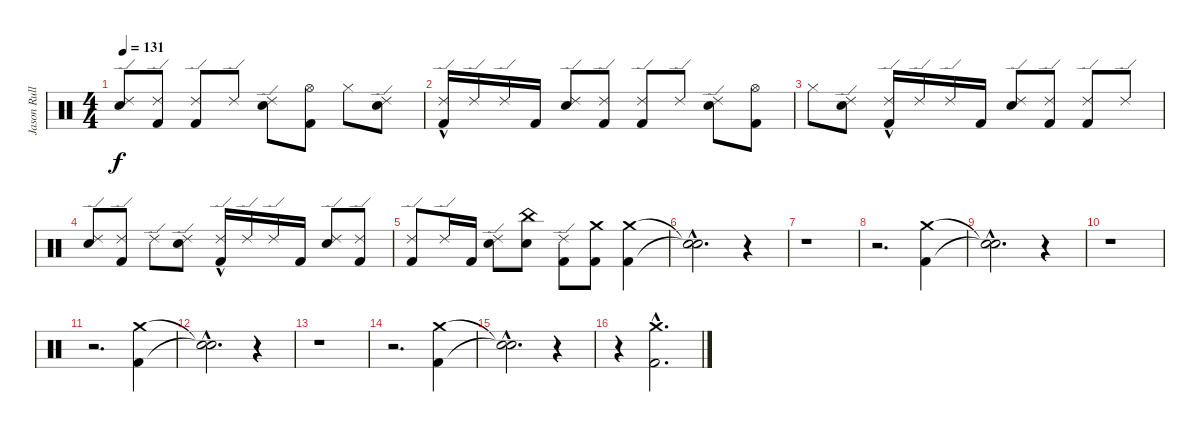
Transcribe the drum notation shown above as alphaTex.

\track ("Jason Rullo (Drums)" "Jason Rull") {instrument percussion}
\staff {score}
\articulation defaults
\ts (4 4)
\tempo 131
\clef neutral
\ks c
("Electric Snare (hit)" "Ride (edge) 2").8{dy f} ("Kick (hit) 2" "Ride (edge) 2").8 ("Kick (hit) 2" "Ride (edge) 2").8 "Ride (edge) 2".8 ("Electric Snare (hit)" "Ride (edge) 2").8 ("Hi-Hat (open)" "Kick (hit) 2").8 "Hi-Hat (closed)".8 ("Electric Snare (hit)" "Ride (edge) 2").8 |
("Ride (edge) 2" "Kick (hit) 2"{hac}).16 "Ride (edge) 2".16 "Ride (edge) 2".16 "Kick (hit) 2".16 ("Electric Snare (hit)" "Ride (edge) 2").8 ("Kick (hit) 2" "Ride (edge) 2").8 ("Kick (hit) 2" "Ride (edge) 2").8 "Ride (edge) 2".8 ("Electric Snare (hit)" "Ride (edge) 2").8 ("Hi-Hat (open)" "Kick (hit) 2").8 |
"Hi-Hat (closed)".8 ("Electric Snare (hit)" "Ride (edge) 2").8 ("Ride (edge) 2" "Kick (hit) 2"{hac}).16 "Ride (edge) 2".16 "Ride (edge) 2".16 "Kick (hit) 2".16 ("Electric Snare (hit)" "Ride (edge) 2").8 ("Kick (hit) 2" "Ride (edge) 2").8 ("Kick (hit) 2" "Ride (edge) 2").8 "Ride (edge) 2".8 |
("Electric Snare (hit)" "Ride (edge) 2").8 ("Kick (hit) 2" "Ride (edge) 2").8 "Ride (edge) 2".8 ("Electric Snare (hit)" "Ride (edge) 2").8 ("Ride (edge) 2" "Kick (hit) 2"{hac}).16 "Ride (edge) 2".16 "Ride (edge) 2".16 "Kick (hit) 2".16 ("Electric Snare (hit)" "Ride (edge) 2").8 ("Kick (hit) 2" "Ride (edge) 2").8 |
("Kick (hit) 2" "Ride (edge) 2").8 "Ride (edge) 2".16 "Kick (hit) 2".16 ("Electric Snare (hit)" "Ride (edge) 2").8 ("China (hit)" "Electric Snare (hit)").8 ("Ride (edge) 2" "Kick (hit) 2").8 ("Crash medium (hit)" "Kick (hit) 2").8 ("Crash medium (hit)" "Kick (hit) 2").4 |
("Snare (hit)"{hac t} "Snare (hit)"{hac t}).2{d} r.4 |
r.1 |
r.2{d} ("Crash medium (hit)" "Kick (hit) 2").4 |
("Snare (hit)"{hac t} "Snare (hit)"{hac t}).2{d} r.4 |
r.1 |
r.2{d} ("Crash medium (hit)" "Kick (hit) 2").4 |
("Snare (hit)"{hac t} "Snare (hit)"{hac t}).2{d} r.4 |
r.1 |
r.2{d} ("Crash medium (hit)" "Kick (hit) 2").4 |
("Snare (hit)"{hac t} "Snare (hit)"{hac t}).2{d} r.4 |
r.4 ("Crash medium (hit)"{hac} "Kick (hit) 2"{hac}).2{d}
